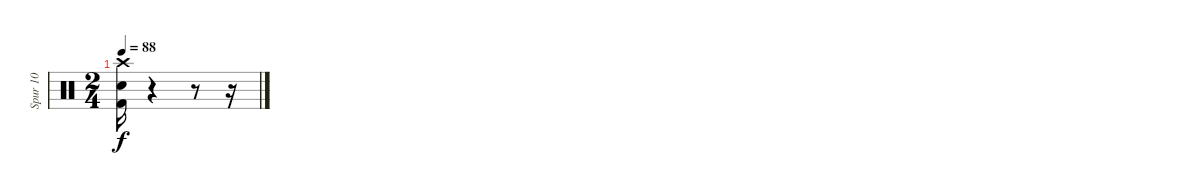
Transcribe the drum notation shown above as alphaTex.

\track ("Spur 10" "Spur 10") {instrument percussion}
\staff {score}
\articulation defaults
\ts (2 4)
\tempo 88
\clef neutral
\ks c
("Crash high (hit)" "Kick (hit) 2" "Snare (hit) 2").16{dy f} r.4 r.8 r.16
